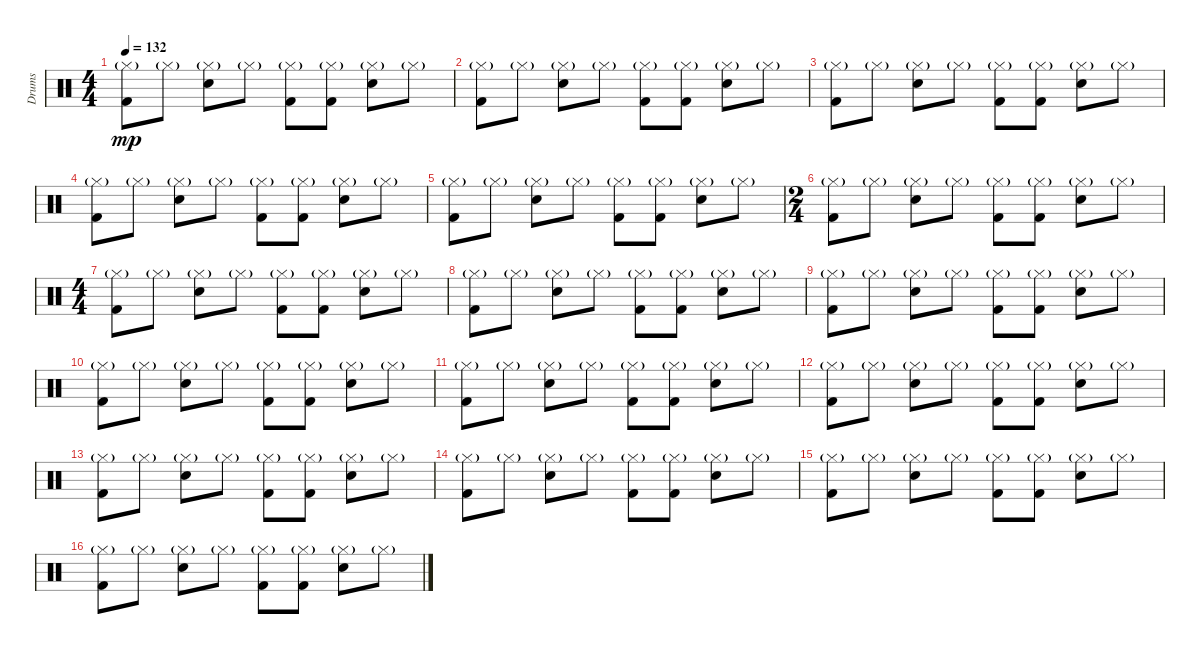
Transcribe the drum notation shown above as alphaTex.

\track ("Drums" "Drums") {instrument percussion}
\staff {score}
\articulation defaults
\ts (4 4)
\tempo 132
\clef neutral
\ks c
("Hi-Hat (closed)"{g} "Kick (hit) 2").8{dy mp} "Hi-Hat (closed)"{g}.8 ("Hi-Hat (closed)"{g} "Snare (hit) 2").8 "Hi-Hat (closed)"{g}.8 ("Hi-Hat (closed)"{g} "Kick (hit) 2").8 ("Hi-Hat (closed)"{g} "Kick (hit) 2").8 ("Hi-Hat (closed)"{g} "Snare (hit) 2").8 "Hi-Hat (closed)"{g}.8 |
("Hi-Hat (closed)"{g} "Kick (hit) 2").8 "Hi-Hat (closed)"{g}.8 ("Hi-Hat (closed)"{g} "Snare (hit) 2").8 "Hi-Hat (closed)"{g}.8 ("Hi-Hat (closed)"{g} "Kick (hit) 2").8 ("Hi-Hat (closed)"{g} "Kick (hit) 2").8 ("Hi-Hat (closed)"{g} "Snare (hit) 2").8 "Hi-Hat (closed)"{g}.8 |
("Hi-Hat (closed)"{g} "Kick (hit) 2").8 "Hi-Hat (closed)"{g}.8 ("Hi-Hat (closed)"{g} "Snare (hit) 2").8 "Hi-Hat (closed)"{g}.8 ("Hi-Hat (closed)"{g} "Kick (hit) 2").8 ("Hi-Hat (closed)"{g} "Kick (hit) 2").8 ("Hi-Hat (closed)"{g} "Snare (hit) 2").8 "Hi-Hat (closed)"{g}.8 |
("Hi-Hat (closed)"{g} "Kick (hit) 2").8 "Hi-Hat (closed)"{g}.8 ("Hi-Hat (closed)"{g} "Snare (hit) 2").8 "Hi-Hat (closed)"{g}.8 ("Hi-Hat (closed)"{g} "Kick (hit) 2").8 ("Hi-Hat (closed)"{g} "Kick (hit) 2").8 ("Hi-Hat (closed)"{g} "Snare (hit) 2").8 "Hi-Hat (closed)"{g}.8 |
("Hi-Hat (closed)"{g} "Kick (hit) 2").8 "Hi-Hat (closed)"{g}.8 ("Hi-Hat (closed)"{g} "Snare (hit) 2").8 "Hi-Hat (closed)"{g}.8 ("Hi-Hat (closed)"{g} "Kick (hit) 2").8 ("Hi-Hat (closed)"{g} "Kick (hit) 2").8 ("Hi-Hat (closed)"{g} "Snare (hit) 2").8 "Hi-Hat (closed)"{g}.8 |
\ts (2 4)
("Hi-Hat (closed)"{g} "Kick (hit) 2").8 "Hi-Hat (closed)"{g}.8 ("Hi-Hat (closed)"{g} "Snare (hit) 2").8 "Hi-Hat (closed)"{g}.8 ("Hi-Hat (closed)"{g} "Kick (hit) 2").8 ("Hi-Hat (closed)"{g} "Kick (hit) 2").8 ("Hi-Hat (closed)"{g} "Snare (hit) 2").8 "Hi-Hat (closed)"{g}.8 |
\ts (4 4)
("Hi-Hat (closed)"{g} "Kick (hit) 2").8 "Hi-Hat (closed)"{g}.8 ("Hi-Hat (closed)"{g} "Snare (hit) 2").8 "Hi-Hat (closed)"{g}.8 ("Hi-Hat (closed)"{g} "Kick (hit) 2").8 ("Hi-Hat (closed)"{g} "Kick (hit) 2").8 ("Hi-Hat (closed)"{g} "Snare (hit) 2").8 "Hi-Hat (closed)"{g}.8 |
("Hi-Hat (closed)"{g} "Kick (hit) 2").8 "Hi-Hat (closed)"{g}.8 ("Hi-Hat (closed)"{g} "Snare (hit) 2").8 "Hi-Hat (closed)"{g}.8 ("Hi-Hat (closed)"{g} "Kick (hit) 2").8 ("Hi-Hat (closed)"{g} "Kick (hit) 2").8 ("Hi-Hat (closed)"{g} "Snare (hit) 2").8 "Hi-Hat (closed)"{g}.8 |
("Hi-Hat (closed)"{g} "Kick (hit) 2").8 "Hi-Hat (closed)"{g}.8 ("Hi-Hat (closed)"{g} "Snare (hit) 2").8 "Hi-Hat (closed)"{g}.8 ("Hi-Hat (closed)"{g} "Kick (hit) 2").8 ("Hi-Hat (closed)"{g} "Kick (hit) 2").8 ("Hi-Hat (closed)"{g} "Snare (hit) 2").8 "Hi-Hat (closed)"{g}.8 |
("Hi-Hat (closed)"{g} "Kick (hit) 2").8 "Hi-Hat (closed)"{g}.8 ("Hi-Hat (closed)"{g} "Snare (hit) 2").8 "Hi-Hat (closed)"{g}.8 ("Hi-Hat (closed)"{g} "Kick (hit) 2").8 ("Hi-Hat (closed)"{g} "Kick (hit) 2").8 ("Hi-Hat (closed)"{g} "Snare (hit) 2").8 "Hi-Hat (closed)"{g}.8 |
("Hi-Hat (closed)"{g} "Kick (hit) 2").8 "Hi-Hat (closed)"{g}.8 ("Hi-Hat (closed)"{g} "Snare (hit) 2").8 "Hi-Hat (closed)"{g}.8 ("Hi-Hat (closed)"{g} "Kick (hit) 2").8 ("Hi-Hat (closed)"{g} "Kick (hit) 2").8 ("Hi-Hat (closed)"{g} "Snare (hit) 2").8 "Hi-Hat (closed)"{g}.8 |
("Hi-Hat (closed)"{g} "Kick (hit) 2").8 "Hi-Hat (closed)"{g}.8 ("Hi-Hat (closed)"{g} "Snare (hit) 2").8 "Hi-Hat (closed)"{g}.8 ("Hi-Hat (closed)"{g} "Kick (hit) 2").8 ("Hi-Hat (closed)"{g} "Kick (hit) 2").8 ("Hi-Hat (closed)"{g} "Snare (hit) 2").8 "Hi-Hat (closed)"{g}.8 |
("Hi-Hat (closed)"{g} "Kick (hit) 2").8 "Hi-Hat (closed)"{g}.8 ("Hi-Hat (closed)"{g} "Snare (hit) 2").8 "Hi-Hat (closed)"{g}.8 ("Hi-Hat (closed)"{g} "Kick (hit) 2").8 ("Hi-Hat (closed)"{g} "Kick (hit) 2").8 ("Hi-Hat (closed)"{g} "Snare (hit) 2").8 "Hi-Hat (closed)"{g}.8 |
("Hi-Hat (closed)"{g} "Kick (hit) 2").8 "Hi-Hat (closed)"{g}.8 ("Hi-Hat (closed)"{g} "Snare (hit) 2").8 "Hi-Hat (closed)"{g}.8 ("Hi-Hat (closed)"{g} "Kick (hit) 2").8 ("Hi-Hat (closed)"{g} "Kick (hit) 2").8 ("Hi-Hat (closed)"{g} "Snare (hit) 2").8 "Hi-Hat (closed)"{g}.8 |
("Hi-Hat (closed)"{g} "Kick (hit) 2").8 "Hi-Hat (closed)"{g}.8 ("Hi-Hat (closed)"{g} "Snare (hit) 2").8 "Hi-Hat (closed)"{g}.8 ("Hi-Hat (closed)"{g} "Kick (hit) 2").8 ("Hi-Hat (closed)"{g} "Kick (hit) 2").8 ("Hi-Hat (closed)"{g} "Snare (hit) 2").8 "Hi-Hat (closed)"{g}.8 |
("Hi-Hat (closed)"{g} "Kick (hit) 2").8 "Hi-Hat (closed)"{g}.8 ("Hi-Hat (closed)"{g} "Snare (hit) 2").8 "Hi-Hat (closed)"{g}.8 ("Hi-Hat (closed)"{g} "Kick (hit) 2").8 ("Hi-Hat (closed)"{g} "Kick (hit) 2").8 ("Hi-Hat (closed)"{g} "Snare (hit) 2").8 "Hi-Hat (closed)"{g}.8
